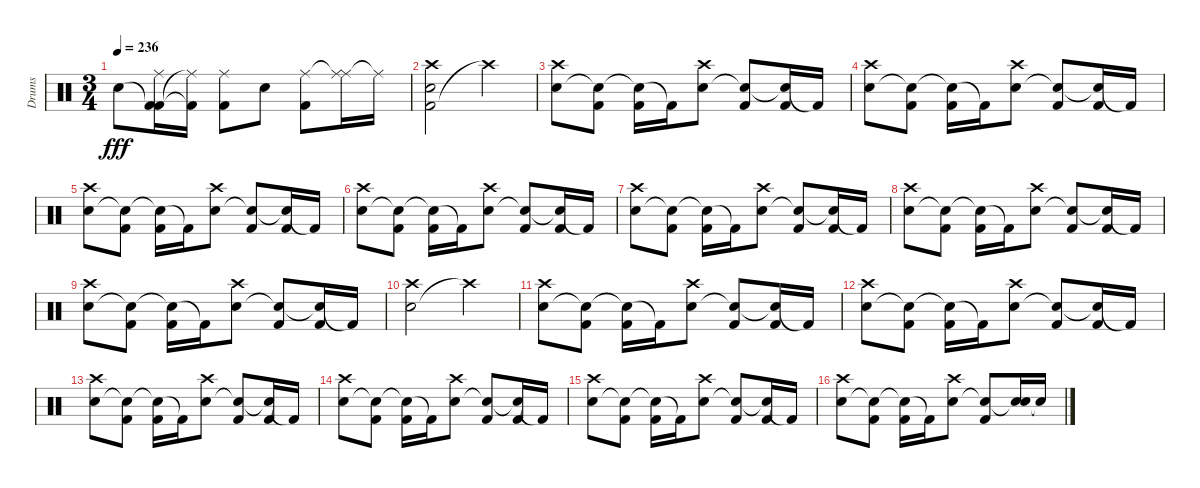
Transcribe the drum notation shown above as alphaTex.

\track ("Drums" "Drums") {instrument percussion}
\staff {score}
\articulation defaults
\ts (3 4)
\tempo 236
\clef neutral
\ks c "Snare (hit) 2".8{dy fff}
("Kick (hit) 2"{t} "Kick (hit) 2" "Ride (middle)").16 ("Kick (hit) 2"{t} "Ride (middle)"{t}).16 ("Kick (hit) 2" "Ride (middle)").8 "Snare (hit) 2".8 ("Ride (middle)" "Kick (hit) 2").8 ("Ride (middle)"{t} "Ride (middle)").16 "Ride (middle)"{t}.16 |
("Kick (hit) 2" "Snare (hit) 2" "Crash high (hit)").2 "Crash high (hit)"{t}.4 |
("Snare (hit) 2" "Crash high (hit)").8 ("Snare (hit) 2"{t} "Kick (hit) 2").8 ("Snare (hit) 2"{t} "Kick (hit) 2").16 "Kick (hit) 2"{t}.16 ("Snare (hit) 2" "Crash high (hit)").8 ("Snare (hit) 2"{t} "Kick (hit) 2").8 ("Snare (hit) 2"{t} "Kick (hit) 2").16 "Kick (hit) 2"{t}.16 |
("Snare (hit) 2" "Crash high (hit)").8 ("Snare (hit) 2"{t} "Kick (hit) 2").8 ("Snare (hit) 2"{t} "Kick (hit) 2").16 "Kick (hit) 2"{t}.16 ("Snare (hit) 2" "Crash high (hit)").8 ("Snare (hit) 2"{t} "Kick (hit) 2").8 ("Snare (hit) 2"{t} "Kick (hit) 2").16 "Kick (hit) 2"{t}.16 |
("Snare (hit) 2" "Crash high (hit)").8 ("Snare (hit) 2"{t} "Kick (hit) 2").8 ("Snare (hit) 2"{t} "Kick (hit) 2").16 "Kick (hit) 2"{t}.16 ("Snare (hit) 2" "Crash high (hit)").8 ("Snare (hit) 2"{t} "Kick (hit) 2").8 ("Snare (hit) 2"{t} "Kick (hit) 2").16 "Kick (hit) 2"{t}.16 |
("Snare (hit) 2" "Crash high (hit)").8 ("Snare (hit) 2"{t} "Kick (hit) 2").8 ("Snare (hit) 2"{t} "Kick (hit) 2").16 "Kick (hit) 2"{t}.16 ("Snare (hit) 2" "Crash high (hit)").8 ("Snare (hit) 2"{t} "Kick (hit) 2").8 ("Snare (hit) 2"{t} "Kick (hit) 2").16 "Kick (hit) 2"{t}.16 |
("Snare (hit) 2" "Crash high (hit)").8 ("Snare (hit) 2"{t} "Kick (hit) 2").8 ("Snare (hit) 2"{t} "Kick (hit) 2").16 "Kick (hit) 2"{t}.16 ("Snare (hit) 2" "Crash high (hit)").8 ("Snare (hit) 2"{t} "Kick (hit) 2").8 ("Snare (hit) 2"{t} "Kick (hit) 2").16 "Kick (hit) 2"{t}.16 |
("Snare (hit) 2" "Crash high (hit)").8 ("Snare (hit) 2"{t} "Kick (hit) 2").8 ("Snare (hit) 2"{t} "Kick (hit) 2").16 "Kick (hit) 2"{t}.16 ("Snare (hit) 2" "Crash high (hit)").8 ("Snare (hit) 2"{t} "Kick (hit) 2").8 ("Snare (hit) 2"{t} "Kick (hit) 2").16 "Kick (hit) 2"{t}.16 |
("Snare (hit) 2" "Crash high (hit)").8 ("Snare (hit) 2"{t} "Kick (hit) 2").8 ("Snare (hit) 2"{t} "Kick (hit) 2").16 "Kick (hit) 2"{t}.16 ("Snare (hit) 2" "Crash high (hit)").8 ("Snare (hit) 2"{t} "Kick (hit) 2").8 ("Snare (hit) 2"{t} "Kick (hit) 2").16 "Kick (hit) 2"{t}.16 |
("Snare (hit) 2" "Crash high (hit)").2 "Crash high (hit)"{t}.4 |
("Snare (hit) 2" "Crash high (hit)").8 ("Snare (hit) 2"{t} "Kick (hit) 2").8 ("Snare (hit) 2"{t} "Kick (hit) 2").16 "Kick (hit) 2"{t}.16 ("Snare (hit) 2" "Crash high (hit)").8 ("Snare (hit) 2"{t} "Kick (hit) 2").8 ("Snare (hit) 2"{t} "Kick (hit) 2").16 "Kick (hit) 2"{t}.16 |
("Snare (hit) 2" "Crash high (hit)").8 ("Snare (hit) 2"{t} "Kick (hit) 2").8 ("Snare (hit) 2"{t} "Kick (hit) 2").16 "Kick (hit) 2"{t}.16 ("Snare (hit) 2" "Crash high (hit)").8 ("Snare (hit) 2"{t} "Kick (hit) 2").8 ("Snare (hit) 2"{t} "Kick (hit) 2").16 "Kick (hit) 2"{t}.16 |
("Snare (hit) 2" "Crash high (hit)").8 ("Snare (hit) 2"{t} "Kick (hit) 2").8 ("Snare (hit) 2"{t} "Kick (hit) 2").16 "Kick (hit) 2"{t}.16 ("Snare (hit) 2" "Crash high (hit)").8 ("Snare (hit) 2"{t} "Kick (hit) 2").8 ("Snare (hit) 2"{t} "Kick (hit) 2").16 "Kick (hit) 2"{t}.16 |
("Snare (hit) 2" "Crash high (hit)").8 ("Snare (hit) 2"{t} "Kick (hit) 2").8 ("Snare (hit) 2"{t} "Kick (hit) 2").16 "Kick (hit) 2"{t}.16 ("Snare (hit) 2" "Crash high (hit)").8 ("Snare (hit) 2"{t} "Kick (hit) 2").8 ("Snare (hit) 2"{t} "Kick (hit) 2").16 "Kick (hit) 2"{t}.16 |
("Snare (hit) 2" "Crash high (hit)").8 ("Snare (hit) 2"{t} "Kick (hit) 2").8 ("Snare (hit) 2"{t} "Kick (hit) 2").16 "Kick (hit) 2"{t}.16 ("Snare (hit) 2" "Crash high (hit)").8 ("Snare (hit) 2"{t} "Kick (hit) 2").8 ("Snare (hit) 2"{t} "Kick (hit) 2").16 "Kick (hit) 2"{t}.16 |
("Snare (hit) 2" "Crash high (hit)").8 ("Snare (hit) 2"{t} "Kick (hit) 2").8 ("Snare (hit) 2"{t} "Kick (hit) 2").16 "Kick (hit) 2"{t}.16 ("Snare (hit) 2" "Crash high (hit)").8 ("Snare (hit) 2"{t} "Kick (hit) 2").8 ("Snare (hit) 2"{t} "Snare (hit) 2").16 "Snare (hit) 2"{t}.16
